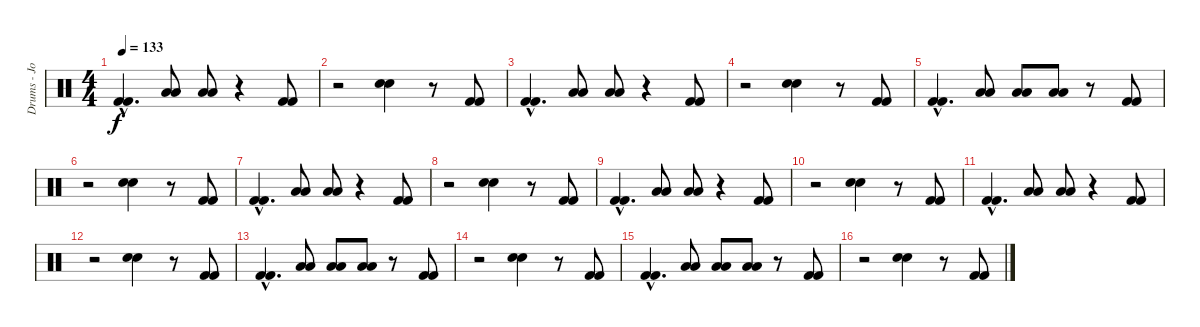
\track ("Drums - Joe Daniels" "Drums - Jo") {instrument percussion}
\staff {score}
\articulation defaults
\ts (4 4)
\tempo 133
\clef neutral
\ks c
("Kick (hit) 2"{hac} "Kick (hit) 2"{hac}).4{d dy f} ("Low Floor Tom (hit)" "Low Floor Tom (hit)").8 ("Low Floor Tom (hit)" "Low Floor Tom (hit)").8 r.4 ("Kick (hit) 2" "Kick (hit) 2").8 |
r.2 ("Snare (hit) 2" "Snare (hit) 2").4 r.8 ("Kick (hit) 2" "Kick (hit) 2").8 |
("Kick (hit) 2"{hac} "Kick (hit) 2"{hac}).4{d} ("Low Floor Tom (hit)" "Low Floor Tom (hit)").8 ("Low Floor Tom (hit)" "Low Floor Tom (hit)").8 r.4 ("Kick (hit) 2" "Kick (hit) 2").8 |
r.2 ("Snare (hit) 2" "Snare (hit) 2").4 r.8 ("Kick (hit) 2" "Kick (hit) 2").8 |
("Kick (hit) 2"{hac} "Kick (hit) 2"{hac}).4{d} ("Low Floor Tom (hit)" "Low Floor Tom (hit)").8 ("Low Floor Tom (hit)" "Low Floor Tom (hit)").8 ("Low Floor Tom (hit)" "Low Floor Tom (hit)").8 r.8 ("Kick (hit) 2" "Kick (hit) 2").8 |
r.2 ("Snare (hit) 2" "Snare (hit) 2").4 r.8 ("Kick (hit) 2" "Kick (hit) 2").8 |
("Kick (hit) 2"{hac} "Kick (hit) 2"{hac}).4{d} ("Low Floor Tom (hit)" "Low Floor Tom (hit)").8 ("Low Floor Tom (hit)" "Low Floor Tom (hit)").8 r.4 ("Kick (hit) 2" "Kick (hit) 2").8 |
r.2 ("Snare (hit) 2" "Snare (hit) 2").4 r.8 ("Kick (hit) 2" "Kick (hit) 2").8 |
("Kick (hit) 2"{hac} "Kick (hit) 2"{hac}).4{d} ("Low Floor Tom (hit)" "Low Floor Tom (hit)").8 ("Low Floor Tom (hit)" "Low Floor Tom (hit)").8 r.4 ("Kick (hit) 2" "Kick (hit) 2").8 |
r.2 ("Snare (hit) 2" "Snare (hit) 2").4 r.8 ("Kick (hit) 2" "Kick (hit) 2").8 |
("Kick (hit) 2"{hac} "Kick (hit) 2"{hac}).4{d} ("Low Floor Tom (hit)" "Low Floor Tom (hit)").8 ("Low Floor Tom (hit)" "Low Floor Tom (hit)").8 r.4 ("Kick (hit) 2" "Kick (hit) 2").8 |
r.2 ("Snare (hit) 2" "Snare (hit) 2").4 r.8 ("Kick (hit) 2" "Kick (hit) 2").8 |
("Kick (hit) 2"{hac} "Kick (hit) 2"{hac}).4{d} ("Low Floor Tom (hit)" "Low Floor Tom (hit)").8 ("Low Floor Tom (hit)" "Low Floor Tom (hit)").8 ("Low Floor Tom (hit)" "Low Floor Tom (hit)").8 r.8 ("Kick (hit) 2" "Kick (hit) 2").8 |
r.2 ("Snare (hit) 2" "Snare (hit) 2").4 r.8 ("Kick (hit) 2" "Kick (hit) 2").8 |
("Kick (hit) 2"{hac} "Kick (hit) 2"{hac}).4{d} ("Low Floor Tom (hit)" "Low Floor Tom (hit)").8 ("Low Floor Tom (hit)" "Low Floor Tom (hit)").8 ("Low Floor Tom (hit)" "Low Floor Tom (hit)").8 r.8 ("Kick (hit) 2" "Kick (hit) 2").8 |
r.2 ("Snare (hit) 2" "Snare (hit) 2").4 r.8 ("Kick (hit) 2" "Kick (hit) 2").8
